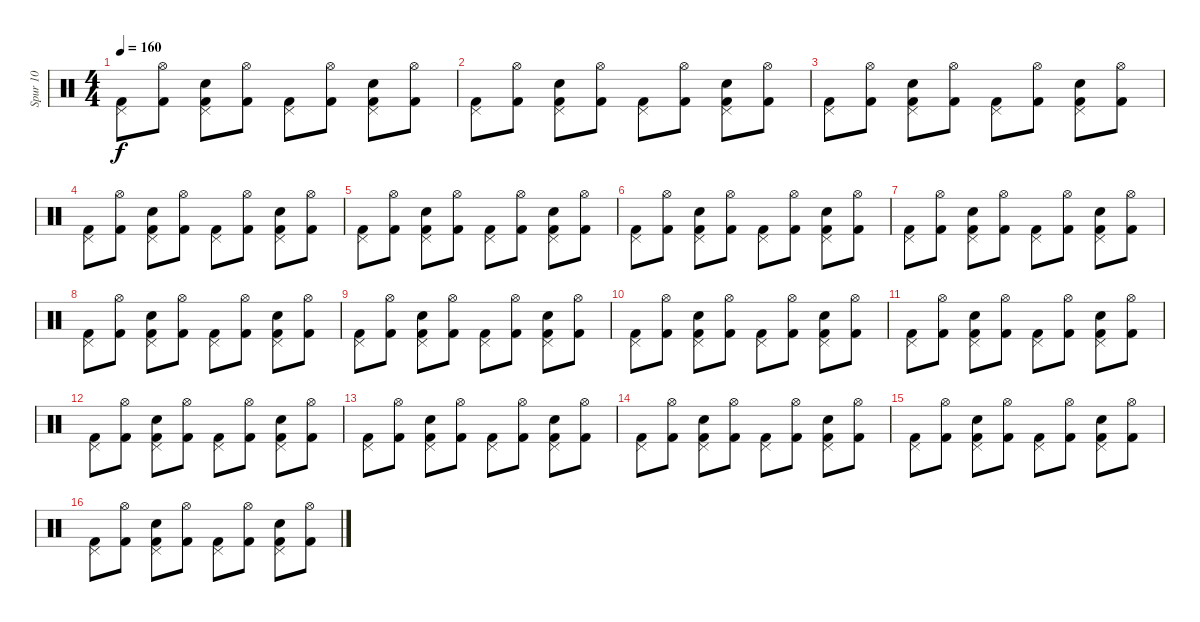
\track ("Spur 10" "Spur 10") {instrument percussion}
\staff {score}
\articulation defaults
\ts (4 4)
\tempo 160
\clef neutral
\ks c
("Pedal Hi-Hat (hit)" "Kick (hit) 2").8{dy f} ("Hi-Hat (open)" "Kick (hit) 2").8 ("Snare (hit) 2" "Kick (hit) 2" "Pedal Hi-Hat (hit)").8 ("Hi-Hat (open)" "Kick (hit) 2").8 ("Pedal Hi-Hat (hit)" "Kick (hit) 2").8 ("Hi-Hat (open)" "Kick (hit) 2").8 ("Snare (hit) 2" "Pedal Hi-Hat (hit)" "Kick (hit) 2").8 ("Kick (hit) 2" "Hi-Hat (open)").8 |
("Kick (hit) 2" "Pedal Hi-Hat (hit)").8 ("Hi-Hat (open)" "Kick (hit) 2").8 ("Snare (hit) 2" "Pedal Hi-Hat (hit)" "Kick (hit) 2").8 ("Kick (hit) 2" "Hi-Hat (open)").8 ("Pedal Hi-Hat (hit)" "Kick (hit) 2").8 ("Hi-Hat (open)" "Kick (hit) 2").8 ("Pedal Hi-Hat (hit)" "Snare (hit) 2" "Kick (hit) 2").8 ("Hi-Hat (open)" "Kick (hit) 2").8 |
("Kick (hit) 2" "Pedal Hi-Hat (hit)").8 ("Kick (hit) 2" "Hi-Hat (open)").8 ("Kick (hit) 2" "Snare (hit) 2" "Pedal Hi-Hat (hit)").8 ("Kick (hit) 2" "Hi-Hat (open)").8 ("Pedal Hi-Hat (hit)" "Kick (hit) 2").8 ("Kick (hit) 2" "Hi-Hat (open)").8 ("Snare (hit) 2" "Kick (hit) 2" "Pedal Hi-Hat (hit)").8 ("Kick (hit) 2" "Hi-Hat (open)").8 |
("Pedal Hi-Hat (hit)" "Kick (hit) 2").8 ("Hi-Hat (open)" "Kick (hit) 2").8 ("Snare (hit) 2" "Kick (hit) 2" "Pedal Hi-Hat (hit)").8 ("Kick (hit) 2" "Hi-Hat (open)").8 ("Pedal Hi-Hat (hit)" "Kick (hit) 2").8 ("Kick (hit) 2" "Hi-Hat (open)").8 ("Pedal Hi-Hat (hit)" "Snare (hit) 2" "Kick (hit) 2").8 ("Kick (hit) 2" "Hi-Hat (open)").8 |
("Kick (hit) 2" "Pedal Hi-Hat (hit)").8 ("Kick (hit) 2" "Hi-Hat (open)").8 ("Snare (hit) 2" "Pedal Hi-Hat (hit)" "Kick (hit) 2").8 ("Hi-Hat (open)" "Kick (hit) 2").8 ("Pedal Hi-Hat (hit)" "Kick (hit) 2").8 ("Kick (hit) 2" "Hi-Hat (open)").8 ("Kick (hit) 2" "Snare (hit) 2" "Pedal Hi-Hat (hit)").8 ("Hi-Hat (open)" "Kick (hit) 2").8 |
("Kick (hit) 2" "Pedal Hi-Hat (hit)").8 ("Hi-Hat (open)" "Kick (hit) 2").8 ("Kick (hit) 2" "Pedal Hi-Hat (hit)" "Snare (hit) 2").8 ("Hi-Hat (open)" "Kick (hit) 2").8 ("Kick (hit) 2" "Pedal Hi-Hat (hit)").8 ("Hi-Hat (open)" "Kick (hit) 2").8 ("Snare (hit) 2" "Pedal Hi-Hat (hit)" "Kick (hit) 2").8 ("Kick (hit) 2" "Hi-Hat (open)").8 |
("Kick (hit) 2" "Pedal Hi-Hat (hit)").8 ("Hi-Hat (open)" "Kick (hit) 2").8 ("Pedal Hi-Hat (hit)" "Kick (hit) 2" "Snare (hit) 2").8 ("Kick (hit) 2" "Hi-Hat (open)").8 ("Kick (hit) 2" "Pedal Hi-Hat (hit)").8 ("Hi-Hat (open)" "Kick (hit) 2").8 ("Kick (hit) 2" "Pedal Hi-Hat (hit)" "Snare (hit) 2").8 ("Hi-Hat (open)" "Kick (hit) 2").8 |
("Pedal Hi-Hat (hit)" "Kick (hit) 2").8 ("Hi-Hat (open)" "Kick (hit) 2").8 ("Snare (hit) 2" "Kick (hit) 2" "Pedal Hi-Hat (hit)").8 ("Hi-Hat (open)" "Kick (hit) 2").8 ("Kick (hit) 2" "Pedal Hi-Hat (hit)").8 ("Kick (hit) 2" "Hi-Hat (open)").8 ("Kick (hit) 2" "Pedal Hi-Hat (hit)" "Snare (hit) 2").8 ("Kick (hit) 2" "Hi-Hat (open)").8 |
("Pedal Hi-Hat (hit)" "Kick (hit) 2").8 ("Hi-Hat (open)" "Kick (hit) 2").8 ("Pedal Hi-Hat (hit)" "Snare (hit) 2" "Kick (hit) 2").8 ("Hi-Hat (open)" "Kick (hit) 2").8 ("Pedal Hi-Hat (hit)" "Kick (hit) 2").8 ("Hi-Hat (open)" "Kick (hit) 2").8 ("Pedal Hi-Hat (hit)" "Kick (hit) 2" "Snare (hit) 2").8 ("Kick (hit) 2" "Hi-Hat (open)").8 |
("Kick (hit) 2" "Pedal Hi-Hat (hit)").8 ("Hi-Hat (open)" "Kick (hit) 2").8 ("Kick (hit) 2" "Snare (hit) 2" "Pedal Hi-Hat (hit)").8 ("Hi-Hat (open)" "Kick (hit) 2").8 ("Pedal Hi-Hat (hit)" "Kick (hit) 2").8 ("Hi-Hat (open)" "Kick (hit) 2").8 ("Snare (hit) 2" "Kick (hit) 2" "Pedal Hi-Hat (hit)").8 ("Hi-Hat (open)" "Kick (hit) 2").8 |
("Pedal Hi-Hat (hit)" "Kick (hit) 2").8 ("Kick (hit) 2" "Hi-Hat (open)").8 ("Kick (hit) 2" "Snare (hit) 2" "Pedal Hi-Hat (hit)").8 ("Kick (hit) 2" "Hi-Hat (open)").8 ("Kick (hit) 2" "Pedal Hi-Hat (hit)").8 ("Kick (hit) 2" "Hi-Hat (open)").8 ("Kick (hit) 2" "Snare (hit) 2" "Pedal Hi-Hat (hit)").8 ("Hi-Hat (open)" "Kick (hit) 2").8 |
("Pedal Hi-Hat (hit)" "Kick (hit) 2").8 ("Kick (hit) 2" "Hi-Hat (open)").8 ("Snare (hit) 2" "Pedal Hi-Hat (hit)" "Kick (hit) 2").8 ("Kick (hit) 2" "Hi-Hat (open)").8 ("Pedal Hi-Hat (hit)" "Kick (hit) 2").8 ("Kick (hit) 2" "Hi-Hat (open)").8 ("Snare (hit) 2" "Kick (hit) 2" "Pedal Hi-Hat (hit)").8 ("Hi-Hat (open)" "Kick (hit) 2").8 |
("Pedal Hi-Hat (hit)" "Kick (hit) 2").8 ("Hi-Hat (open)" "Kick (hit) 2").8 ("Kick (hit) 2" "Snare (hit) 2" "Pedal Hi-Hat (hit)").8 ("Hi-Hat (open)" "Kick (hit) 2").8 ("Kick (hit) 2" "Pedal Hi-Hat (hit)").8 ("Kick (hit) 2" "Hi-Hat (open)").8 ("Kick (hit) 2" "Snare (hit) 2" "Pedal Hi-Hat (hit)").8 ("Kick (hit) 2" "Hi-Hat (open)").8 |
("Kick (hit) 2" "Pedal Hi-Hat (hit)").8 ("Kick (hit) 2" "Hi-Hat (open)").8 ("Snare (hit) 2" "Kick (hit) 2" "Pedal Hi-Hat (hit)").8 ("Hi-Hat (open)" "Kick (hit) 2").8 ("Kick (hit) 2" "Pedal Hi-Hat (hit)").8 ("Hi-Hat (open)" "Kick (hit) 2").8 ("Kick (hit) 2" "Pedal Hi-Hat (hit)" "Snare (hit) 2").8 ("Kick (hit) 2" "Hi-Hat (open)").8 |
("Pedal Hi-Hat (hit)" "Kick (hit) 2").8 ("Hi-Hat (open)" "Kick (hit) 2").8 ("Kick (hit) 2" "Pedal Hi-Hat (hit)" "Snare (hit) 2").8 ("Kick (hit) 2" "Hi-Hat (open)").8 ("Pedal Hi-Hat (hit)" "Kick (hit) 2").8 ("Kick (hit) 2" "Hi-Hat (open)").8 ("Pedal Hi-Hat (hit)" "Snare (hit) 2" "Kick (hit) 2").8 ("Kick (hit) 2" "Hi-Hat (open)").8 |
("Kick (hit) 2" "Pedal Hi-Hat (hit)").8 ("Hi-Hat (open)" "Kick (hit) 2").8 ("Kick (hit) 2" "Snare (hit) 2" "Pedal Hi-Hat (hit)").8 ("Hi-Hat (open)" "Kick (hit) 2").8 ("Pedal Hi-Hat (hit)" "Kick (hit) 2").8 ("Kick (hit) 2" "Hi-Hat (open)").8 ("Kick (hit) 2" "Snare (hit) 2" "Pedal Hi-Hat (hit)").8 ("Hi-Hat (open)" "Kick (hit) 2").8
